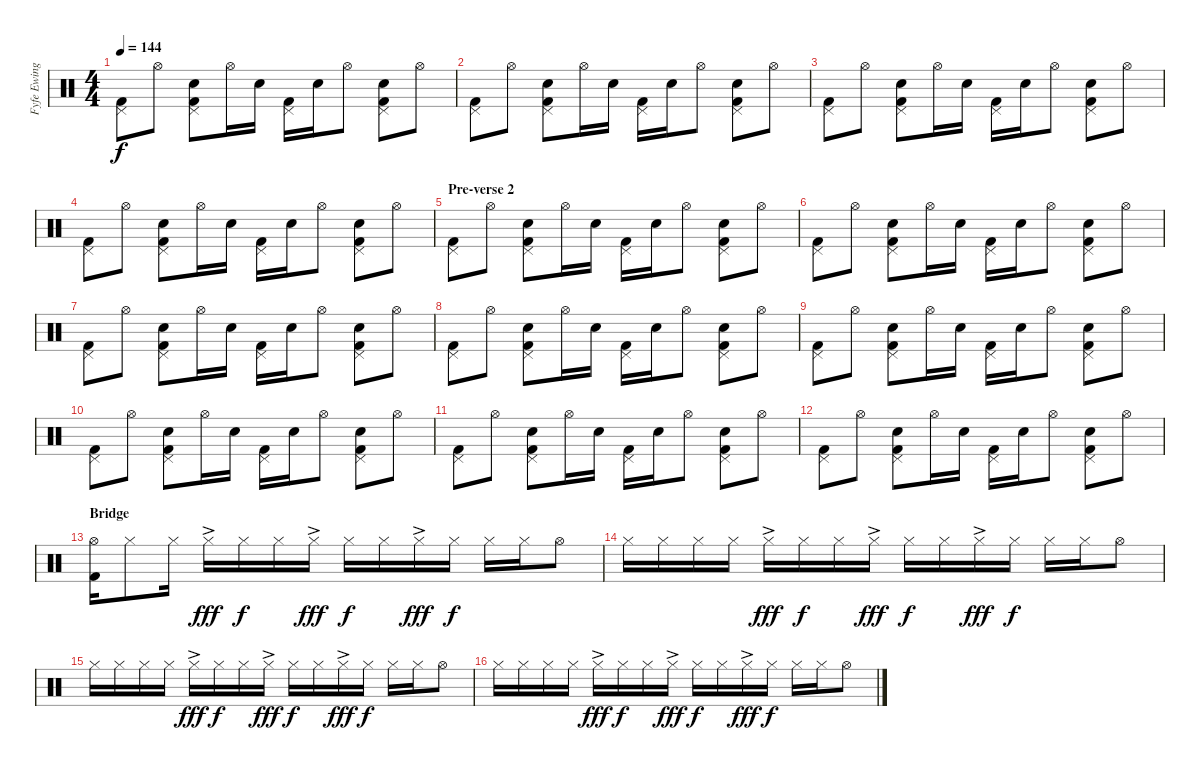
\track ("Fyfe Ewing" "Fyfe Ewing") {instrument percussion}
\staff {score}
\articulation defaults
\ts (4 4)
\tempo 144
\clef neutral
\ks c
("Pedal Hi-Hat (hit)" "Kick (hit) 2").8{dy f} "Hi-Hat (open)".8 ("Pedal Hi-Hat (hit)" "Snare (hit) 2" "Kick (hit) 2").8 "Hi-Hat (open)".16 "Snare (hit) 2".16 ("Pedal Hi-Hat (hit)" "Kick (hit) 2").16 "Snare (hit) 2".16 "Hi-Hat (open)".8 ("Pedal Hi-Hat (hit)" "Snare (hit) 2" "Kick (hit) 2").8 "Hi-Hat (open)".8 |
("Pedal Hi-Hat (hit)" "Kick (hit) 2").8 "Hi-Hat (open)".8 ("Pedal Hi-Hat (hit)" "Snare (hit) 2" "Kick (hit) 2").8 "Hi-Hat (open)".16 "Snare (hit) 2".16 ("Pedal Hi-Hat (hit)" "Kick (hit) 2").16 "Snare (hit) 2".16 "Hi-Hat (open)".8 ("Pedal Hi-Hat (hit)" "Snare (hit) 2" "Kick (hit) 2").8 "Hi-Hat (open)".8 |
("Pedal Hi-Hat (hit)" "Kick (hit) 2").8 "Hi-Hat (open)".8 ("Pedal Hi-Hat (hit)" "Snare (hit) 2" "Kick (hit) 2").8 "Hi-Hat (open)".16 "Snare (hit) 2".16 ("Pedal Hi-Hat (hit)" "Kick (hit) 2").16 "Snare (hit) 2".16 "Hi-Hat (open)".8 ("Pedal Hi-Hat (hit)" "Snare (hit) 2" "Kick (hit) 2").8 "Hi-Hat (open)".8 |
("Pedal Hi-Hat (hit)" "Kick (hit) 2").8 "Hi-Hat (open)".8 ("Pedal Hi-Hat (hit)" "Snare (hit) 2" "Kick (hit) 2").8 "Hi-Hat (open)".16 "Snare (hit) 2".16 ("Pedal Hi-Hat (hit)" "Kick (hit) 2").16 "Snare (hit) 2".16 "Hi-Hat (open)".8 ("Pedal Hi-Hat (hit)" "Snare (hit) 2" "Kick (hit) 2").8 "Hi-Hat (open)".8 |
\section ("" "Pre-verse 2")
("Pedal Hi-Hat (hit)" "Kick (hit) 2").8 "Hi-Hat (open)".8 ("Pedal Hi-Hat (hit)" "Snare (hit) 2" "Kick (hit) 2").8 "Hi-Hat (open)".16 "Snare (hit) 2".16 ("Pedal Hi-Hat (hit)" "Kick (hit) 2").16 "Snare (hit) 2".16 "Hi-Hat (open)".8 ("Pedal Hi-Hat (hit)" "Snare (hit) 2" "Kick (hit) 2").8 "Hi-Hat (open)".8 |
("Pedal Hi-Hat (hit)" "Kick (hit) 2").8 "Hi-Hat (open)".8 ("Pedal Hi-Hat (hit)" "Snare (hit) 2" "Kick (hit) 2").8 "Hi-Hat (open)".16 "Snare (hit) 2".16 ("Pedal Hi-Hat (hit)" "Kick (hit) 2").16 "Snare (hit) 2".16 "Hi-Hat (open)".8 ("Pedal Hi-Hat (hit)" "Snare (hit) 2" "Kick (hit) 2").8 "Hi-Hat (open)".8 |
("Pedal Hi-Hat (hit)" "Kick (hit) 2").8 "Hi-Hat (open)".8 ("Pedal Hi-Hat (hit)" "Snare (hit) 2" "Kick (hit) 2").8 "Hi-Hat (open)".16 "Snare (hit) 2".16 ("Pedal Hi-Hat (hit)" "Kick (hit) 2").16 "Snare (hit) 2".16 "Hi-Hat (open)".8 ("Pedal Hi-Hat (hit)" "Snare (hit) 2" "Kick (hit) 2").8 "Hi-Hat (open)".8 |
("Pedal Hi-Hat (hit)" "Kick (hit) 2").8 "Hi-Hat (open)".8 ("Pedal Hi-Hat (hit)" "Snare (hit) 2" "Kick (hit) 2").8 "Hi-Hat (open)".16 "Snare (hit) 2".16 ("Pedal Hi-Hat (hit)" "Kick (hit) 2").16 "Snare (hit) 2".16 "Hi-Hat (open)".8 ("Pedal Hi-Hat (hit)" "Snare (hit) 2" "Kick (hit) 2").8 "Hi-Hat (open)".8 |
("Pedal Hi-Hat (hit)" "Kick (hit) 2").8 "Hi-Hat (open)".8 ("Pedal Hi-Hat (hit)" "Snare (hit) 2" "Kick (hit) 2").8 "Hi-Hat (open)".16 "Snare (hit) 2".16 ("Pedal Hi-Hat (hit)" "Kick (hit) 2").16 "Snare (hit) 2".16 "Hi-Hat (open)".8 ("Pedal Hi-Hat (hit)" "Snare (hit) 2" "Kick (hit) 2").8 "Hi-Hat (open)".8 |
("Pedal Hi-Hat (hit)" "Kick (hit) 2").8 "Hi-Hat (open)".8 ("Pedal Hi-Hat (hit)" "Snare (hit) 2" "Kick (hit) 2").8 "Hi-Hat (open)".16 "Snare (hit) 2".16 ("Pedal Hi-Hat (hit)" "Kick (hit) 2").16 "Snare (hit) 2".16 "Hi-Hat (open)".8 ("Pedal Hi-Hat (hit)" "Snare (hit) 2" "Kick (hit) 2").8 "Hi-Hat (open)".8 |
("Pedal Hi-Hat (hit)" "Kick (hit) 2").8 "Hi-Hat (open)".8 ("Pedal Hi-Hat (hit)" "Snare (hit) 2" "Kick (hit) 2").8 "Hi-Hat (open)".16 "Snare (hit) 2".16 ("Pedal Hi-Hat (hit)" "Kick (hit) 2").16 "Snare (hit) 2".16 "Hi-Hat (open)".8 ("Pedal Hi-Hat (hit)" "Snare (hit) 2" "Kick (hit) 2").8 "Hi-Hat (open)".8 |
("Pedal Hi-Hat (hit)" "Kick (hit) 2").8 "Hi-Hat (open)".8 ("Pedal Hi-Hat (hit)" "Snare (hit) 2" "Kick (hit) 2").8 "Hi-Hat (open)".16 "Snare (hit) 2".16 ("Pedal Hi-Hat (hit)" "Kick (hit) 2").16 "Snare (hit) 2".16 "Hi-Hat (open)".8 ("Pedal Hi-Hat (hit)" "Snare (hit) 2" "Kick (hit) 2").8 "Hi-Hat (open)".8 |
\section ("" "Bridge")
("Hi-Hat (open)" "Kick (hit) 2").16 "Hi-Hat (closed)".8 "Hi-Hat (closed)".16 "Hi-Hat (closed)"{ac}.16{dy fff} "Hi-Hat (closed)".16{dy f} "Hi-Hat (closed)".16 "Hi-Hat (closed)"{ac}.16{dy fff} "Hi-Hat (closed)".16{dy f} "Hi-Hat (closed)".16 "Hi-Hat (closed)"{ac}.16{dy fff} "Hi-Hat (closed)".16{dy f} "Hi-Hat (closed)".16 "Hi-Hat (closed)".16 "Hi-Hat (open)".8 |
"Hi-Hat (closed)".16 "Hi-Hat (closed)".16 "Hi-Hat (closed)".16 "Hi-Hat (closed)".16 "Hi-Hat (closed)"{ac}.16{dy fff} "Hi-Hat (closed)".16{dy f} "Hi-Hat (closed)".16 "Hi-Hat (closed)"{ac}.16{dy fff} "Hi-Hat (closed)".16{dy f} "Hi-Hat (closed)".16 "Hi-Hat (closed)"{ac}.16{dy fff} "Hi-Hat (closed)".16{dy f} "Hi-Hat (closed)".16 "Hi-Hat (closed)".16 "Hi-Hat (open)".8 |
"Hi-Hat (closed)".16 "Hi-Hat (closed)".16 "Hi-Hat (closed)".16 "Hi-Hat (closed)".16 "Hi-Hat (closed)"{ac}.16{dy fff} "Hi-Hat (closed)".16{dy f} "Hi-Hat (closed)".16 "Hi-Hat (closed)"{ac}.16{dy fff} "Hi-Hat (closed)".16{dy f} "Hi-Hat (closed)".16 "Hi-Hat (closed)"{ac}.16{dy fff} "Hi-Hat (closed)".16{dy f} "Hi-Hat (closed)".16 "Hi-Hat (closed)".16 "Hi-Hat (open)".8 |
"Hi-Hat (closed)".16 "Hi-Hat (closed)".16 "Hi-Hat (closed)".16 "Hi-Hat (closed)".16 "Hi-Hat (closed)"{ac}.16{dy fff} "Hi-Hat (closed)".16{dy f} "Hi-Hat (closed)".16 "Hi-Hat (closed)"{ac}.16{dy fff} "Hi-Hat (closed)".16{dy f} "Hi-Hat (closed)".16 "Hi-Hat (closed)"{ac}.16{dy fff} "Hi-Hat (closed)".16{dy f} "Hi-Hat (closed)".16 "Hi-Hat (closed)".16 "Hi-Hat (open)".8
